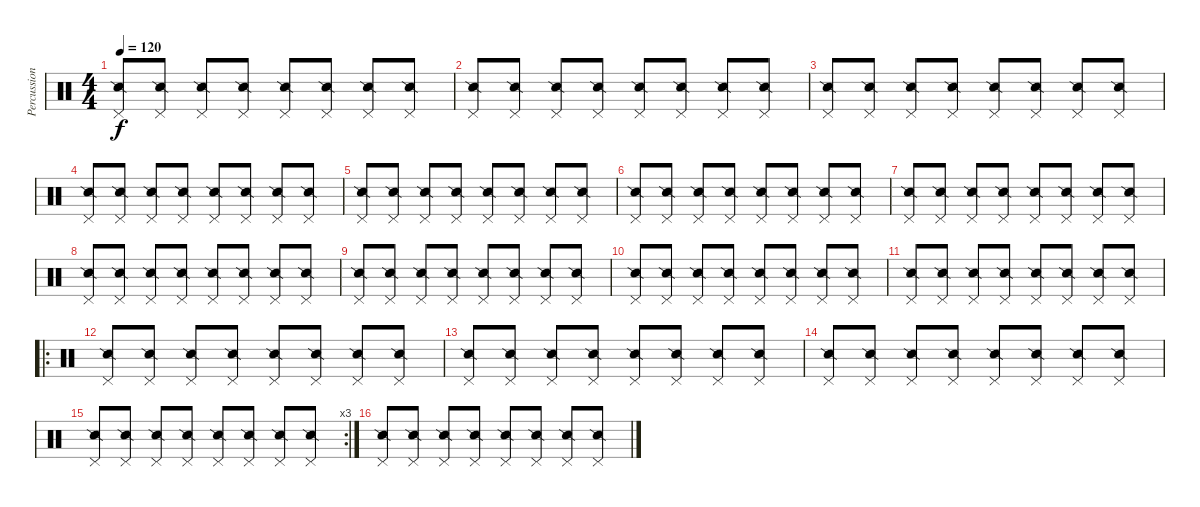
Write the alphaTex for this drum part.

\track ("Percussion" "Percussion") {instrument percussion}
\staff {score}
\articulation defaults
\ts (4 4)
\tempo 120
\clef neutral
\ks c
("Pedal Hi-Hat (hit)" "Snare (side stick) 2").8{dy f} ("Pedal Hi-Hat (hit)" "Snare (side stick) 2").8 ("Pedal Hi-Hat (hit)" "Snare (side stick) 2").8 ("Pedal Hi-Hat (hit)" "Snare (side stick) 2").8 ("Pedal Hi-Hat (hit)" "Snare (side stick) 2").8 ("Pedal Hi-Hat (hit)" "Snare (side stick) 2").8 ("Pedal Hi-Hat (hit)" "Snare (side stick) 2").8 ("Pedal Hi-Hat (hit)" "Snare (side stick) 2").8 |
("Pedal Hi-Hat (hit)" "Snare (side stick) 2").8 ("Pedal Hi-Hat (hit)" "Snare (side stick) 2").8 ("Pedal Hi-Hat (hit)" "Snare (side stick) 2").8 ("Pedal Hi-Hat (hit)" "Snare (side stick) 2").8 ("Pedal Hi-Hat (hit)" "Snare (side stick) 2").8 ("Pedal Hi-Hat (hit)" "Snare (side stick) 2").8 ("Pedal Hi-Hat (hit)" "Snare (side stick) 2").8 ("Pedal Hi-Hat (hit)" "Snare (side stick) 2").8 |
("Pedal Hi-Hat (hit)" "Snare (side stick) 2").8 ("Pedal Hi-Hat (hit)" "Snare (side stick) 2").8 ("Pedal Hi-Hat (hit)" "Snare (side stick) 2").8 ("Pedal Hi-Hat (hit)" "Snare (side stick) 2").8 ("Pedal Hi-Hat (hit)" "Snare (side stick) 2").8 ("Pedal Hi-Hat (hit)" "Snare (side stick) 2").8 ("Pedal Hi-Hat (hit)" "Snare (side stick) 2").8 ("Pedal Hi-Hat (hit)" "Snare (side stick) 2").8 |
("Pedal Hi-Hat (hit)" "Snare (side stick) 2").8 ("Pedal Hi-Hat (hit)" "Snare (side stick) 2").8 ("Pedal Hi-Hat (hit)" "Snare (side stick) 2").8 ("Pedal Hi-Hat (hit)" "Snare (side stick) 2").8 ("Pedal Hi-Hat (hit)" "Snare (side stick) 2").8 ("Pedal Hi-Hat (hit)" "Snare (side stick) 2").8 ("Pedal Hi-Hat (hit)" "Snare (side stick) 2").8 ("Pedal Hi-Hat (hit)" "Snare (side stick) 2").8 |
("Pedal Hi-Hat (hit)" "Snare (side stick) 2").8 ("Pedal Hi-Hat (hit)" "Snare (side stick) 2").8 ("Pedal Hi-Hat (hit)" "Snare (side stick) 2").8 ("Pedal Hi-Hat (hit)" "Snare (side stick) 2").8 ("Pedal Hi-Hat (hit)" "Snare (side stick) 2").8 ("Pedal Hi-Hat (hit)" "Snare (side stick) 2").8 ("Pedal Hi-Hat (hit)" "Snare (side stick) 2").8 ("Pedal Hi-Hat (hit)" "Snare (side stick) 2").8 |
("Pedal Hi-Hat (hit)" "Snare (side stick) 2").8 ("Pedal Hi-Hat (hit)" "Snare (side stick) 2").8 ("Pedal Hi-Hat (hit)" "Snare (side stick) 2").8 ("Pedal Hi-Hat (hit)" "Snare (side stick) 2").8 ("Pedal Hi-Hat (hit)" "Snare (side stick) 2").8 ("Pedal Hi-Hat (hit)" "Snare (side stick) 2").8 ("Pedal Hi-Hat (hit)" "Snare (side stick) 2").8 ("Pedal Hi-Hat (hit)" "Snare (side stick) 2").8 |
("Pedal Hi-Hat (hit)" "Snare (side stick) 2").8 ("Pedal Hi-Hat (hit)" "Snare (side stick) 2").8 ("Pedal Hi-Hat (hit)" "Snare (side stick) 2").8 ("Pedal Hi-Hat (hit)" "Snare (side stick) 2").8 ("Pedal Hi-Hat (hit)" "Snare (side stick) 2").8 ("Pedal Hi-Hat (hit)" "Snare (side stick) 2").8 ("Pedal Hi-Hat (hit)" "Snare (side stick) 2").8 ("Pedal Hi-Hat (hit)" "Snare (side stick) 2").8 |
("Pedal Hi-Hat (hit)" "Snare (side stick) 2").8 ("Pedal Hi-Hat (hit)" "Snare (side stick) 2").8 ("Pedal Hi-Hat (hit)" "Snare (side stick) 2").8 ("Pedal Hi-Hat (hit)" "Snare (side stick) 2").8 ("Pedal Hi-Hat (hit)" "Snare (side stick) 2").8 ("Pedal Hi-Hat (hit)" "Snare (side stick) 2").8 ("Pedal Hi-Hat (hit)" "Snare (side stick) 2").8 ("Pedal Hi-Hat (hit)" "Snare (side stick) 2").8 |
("Pedal Hi-Hat (hit)" "Snare (side stick) 2").8 ("Pedal Hi-Hat (hit)" "Snare (side stick) 2").8 ("Pedal Hi-Hat (hit)" "Snare (side stick) 2").8 ("Pedal Hi-Hat (hit)" "Snare (side stick) 2").8 ("Pedal Hi-Hat (hit)" "Snare (side stick) 2").8 ("Pedal Hi-Hat (hit)" "Snare (side stick) 2").8 ("Pedal Hi-Hat (hit)" "Snare (side stick) 2").8 ("Pedal Hi-Hat (hit)" "Snare (side stick) 2").8 |
("Pedal Hi-Hat (hit)" "Snare (side stick) 2").8 ("Pedal Hi-Hat (hit)" "Snare (side stick) 2").8 ("Pedal Hi-Hat (hit)" "Snare (side stick) 2").8 ("Pedal Hi-Hat (hit)" "Snare (side stick) 2").8 ("Pedal Hi-Hat (hit)" "Snare (side stick) 2").8 ("Pedal Hi-Hat (hit)" "Snare (side stick) 2").8 ("Pedal Hi-Hat (hit)" "Snare (side stick) 2").8 ("Pedal Hi-Hat (hit)" "Snare (side stick) 2").8 |
("Pedal Hi-Hat (hit)" "Snare (side stick) 2").8 ("Pedal Hi-Hat (hit)" "Snare (side stick) 2").8 ("Pedal Hi-Hat (hit)" "Snare (side stick) 2").8 ("Pedal Hi-Hat (hit)" "Snare (side stick) 2").8 ("Pedal Hi-Hat (hit)" "Snare (side stick) 2").8 ("Pedal Hi-Hat (hit)" "Snare (side stick) 2").8 ("Pedal Hi-Hat (hit)" "Snare (side stick) 2").8 ("Pedal Hi-Hat (hit)" "Snare (side stick) 2").8 |
\ro
("Pedal Hi-Hat (hit)" "Snare (side stick) 2").8 ("Pedal Hi-Hat (hit)" "Snare (side stick) 2").8 ("Pedal Hi-Hat (hit)" "Snare (side stick) 2").8 ("Pedal Hi-Hat (hit)" "Snare (side stick) 2").8 ("Pedal Hi-Hat (hit)" "Snare (side stick) 2").8 ("Pedal Hi-Hat (hit)" "Snare (side stick) 2").8 ("Pedal Hi-Hat (hit)" "Snare (side stick) 2").8 ("Pedal Hi-Hat (hit)" "Snare (side stick) 2").8 |
("Pedal Hi-Hat (hit)" "Snare (side stick) 2").8 ("Pedal Hi-Hat (hit)" "Snare (side stick) 2").8 ("Pedal Hi-Hat (hit)" "Snare (side stick) 2").8 ("Pedal Hi-Hat (hit)" "Snare (side stick) 2").8 ("Pedal Hi-Hat (hit)" "Snare (side stick) 2").8 ("Pedal Hi-Hat (hit)" "Snare (side stick) 2").8 ("Pedal Hi-Hat (hit)" "Snare (side stick) 2").8 ("Pedal Hi-Hat (hit)" "Snare (side stick) 2").8 |
("Pedal Hi-Hat (hit)" "Snare (side stick) 2").8 ("Pedal Hi-Hat (hit)" "Snare (side stick) 2").8 ("Pedal Hi-Hat (hit)" "Snare (side stick) 2").8 ("Pedal Hi-Hat (hit)" "Snare (side stick) 2").8 ("Pedal Hi-Hat (hit)" "Snare (side stick) 2").8 ("Pedal Hi-Hat (hit)" "Snare (side stick) 2").8 ("Pedal Hi-Hat (hit)" "Snare (side stick) 2").8 ("Pedal Hi-Hat (hit)" "Snare (side stick) 2").8 |
\rc 3
("Pedal Hi-Hat (hit)" "Snare (side stick) 2").8 ("Pedal Hi-Hat (hit)" "Snare (side stick) 2").8 ("Pedal Hi-Hat (hit)" "Snare (side stick) 2").8 ("Pedal Hi-Hat (hit)" "Snare (side stick) 2").8 ("Pedal Hi-Hat (hit)" "Snare (side stick) 2").8 ("Pedal Hi-Hat (hit)" "Snare (side stick) 2").8 ("Pedal Hi-Hat (hit)" "Snare (side stick) 2").8 ("Pedal Hi-Hat (hit)" "Snare (side stick) 2").8 |
("Pedal Hi-Hat (hit)" "Snare (side stick) 2").8 ("Pedal Hi-Hat (hit)" "Snare (side stick) 2").8 ("Pedal Hi-Hat (hit)" "Snare (side stick) 2").8 ("Pedal Hi-Hat (hit)" "Snare (side stick) 2").8 ("Pedal Hi-Hat (hit)" "Snare (side stick) 2").8 ("Pedal Hi-Hat (hit)" "Snare (side stick) 2").8 ("Pedal Hi-Hat (hit)" "Snare (side stick) 2").8 ("Pedal Hi-Hat (hit)" "Snare (side stick) 2").8
